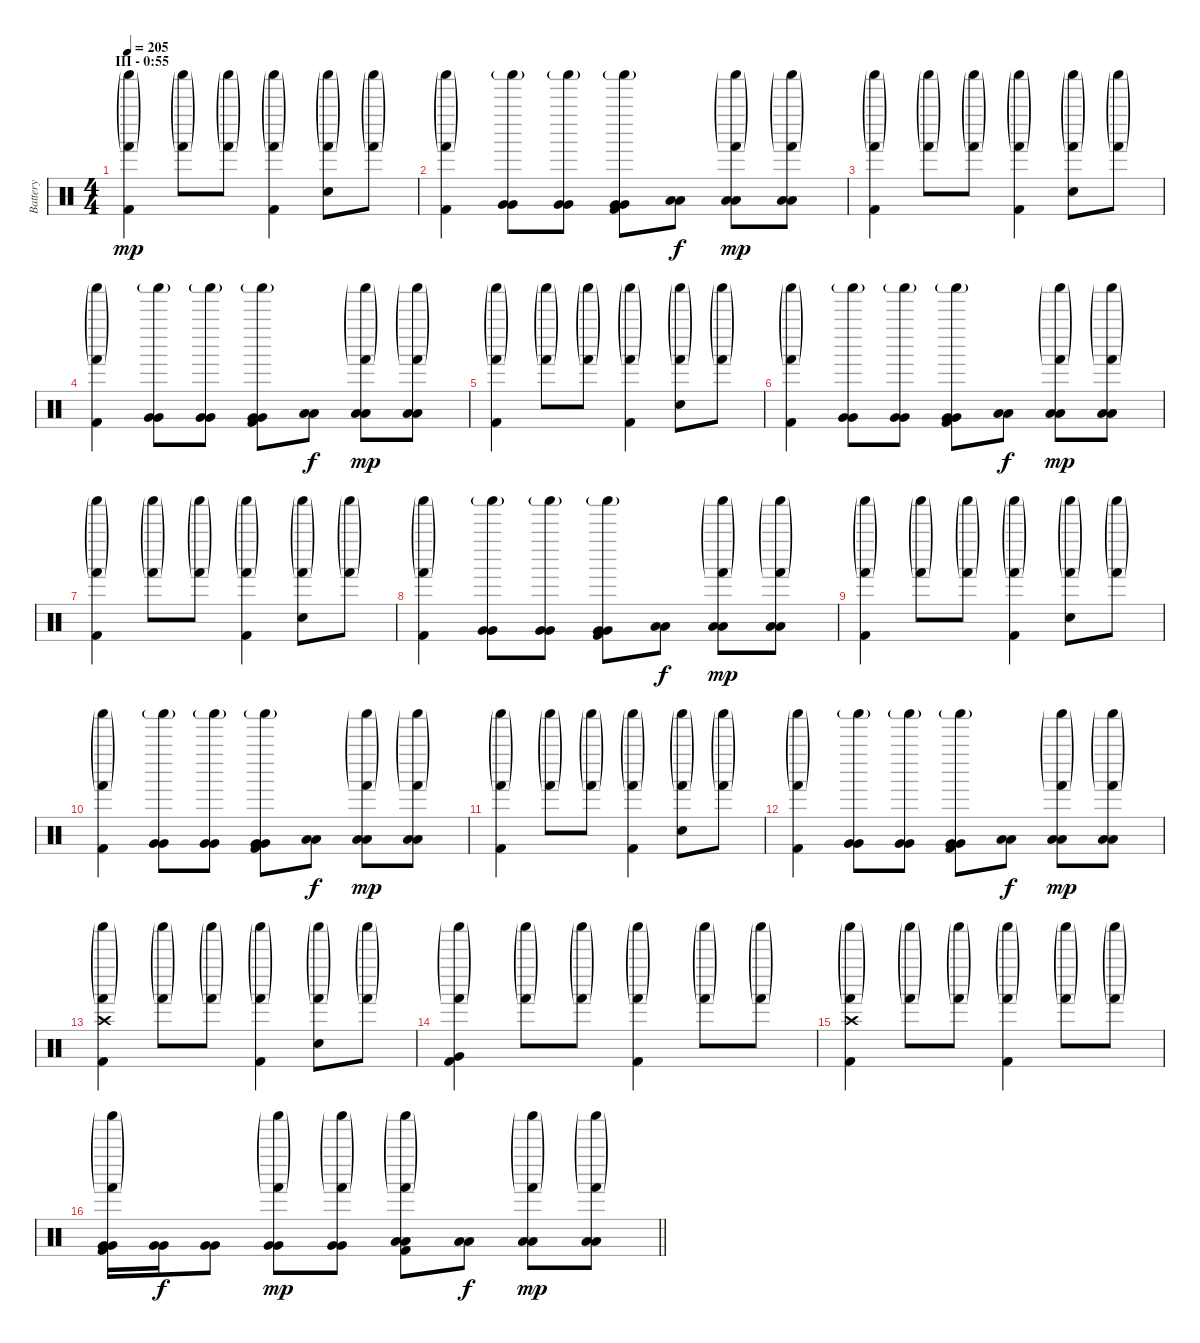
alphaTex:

\track ("Battery" "Battery") {instrument percussion}
\staff {score}
\articulation defaults
\ts (4 4)
\section ("" "III - 0:55")
\tempo 205
\clef neutral
\ks c
("Shaker (hit)"{g} "Hand (hit)"{g} "Kick (hit) 2").4{dy mp} ("Shaker (hit)"{g} "Hand (hit)"{g}).8 ("Shaker (hit)"{g} "Hand (hit)"{g}).8 ("Shaker (hit)"{g} "Hand (hit)"{g} "Kick (hit) 2").4 ("Shaker (hit)"{g} "Hand (hit)"{g} "Electric Snare (hit)").8 ("Shaker (hit)"{g} "Hand (hit)"{g}).8 |
("Shaker (hit)"{g} "Hand (hit)"{g} "Kick (hit) 2").4 ("Shaker (hit)"{g} "Very Low Tom (hit)" "Very Low Tom (hit)").8 ("Shaker (hit)"{g} "Very Low Tom (hit)" "Very Low Tom (hit)").8 ("Shaker (hit)"{g} "Very Low Tom (hit)" "Very Low Tom (hit)" "Kick (hit) 2").8 ("Low Floor Tom (hit)" "Low Floor Tom (hit)").8{dy f} ("Shaker (hit)"{g} "Hand (hit)"{g} "Low Floor Tom (hit)" "Low Floor Tom (hit)").8{dy mp} ("Shaker (hit)"{g} "Hand (hit)"{g} "Low Floor Tom (hit)" "Low Floor Tom (hit)").8 |
("Shaker (hit)"{g} "Hand (hit)"{g} "Kick (hit) 2").4 ("Shaker (hit)"{g} "Hand (hit)"{g}).8 ("Shaker (hit)"{g} "Hand (hit)"{g}).8 ("Shaker (hit)"{g} "Hand (hit)"{g} "Kick (hit) 2").4 ("Shaker (hit)"{g} "Hand (hit)"{g} "Electric Snare (hit)").8 ("Shaker (hit)"{g} "Hand (hit)"{g}).8 |
("Shaker (hit)"{g} "Hand (hit)"{g} "Kick (hit) 2").4 ("Shaker (hit)"{g} "Very Low Tom (hit)" "Very Low Tom (hit)").8 ("Shaker (hit)"{g} "Very Low Tom (hit)" "Very Low Tom (hit)").8 ("Shaker (hit)"{g} "Very Low Tom (hit)" "Very Low Tom (hit)" "Kick (hit) 2").8 ("Low Floor Tom (hit)" "Low Floor Tom (hit)").8{dy f} ("Shaker (hit)"{g} "Hand (hit)"{g} "Low Floor Tom (hit)" "Low Floor Tom (hit)").8{dy mp} ("Shaker (hit)"{g} "Hand (hit)"{g} "Low Floor Tom (hit)" "Low Floor Tom (hit)").8 |
("Shaker (hit)"{g} "Hand (hit)"{g} "Kick (hit) 2").4 ("Shaker (hit)"{g} "Hand (hit)"{g}).8 ("Shaker (hit)"{g} "Hand (hit)"{g}).8 ("Shaker (hit)"{g} "Hand (hit)"{g} "Kick (hit) 2").4 ("Shaker (hit)"{g} "Hand (hit)"{g} "Electric Snare (hit)").8 ("Shaker (hit)"{g} "Hand (hit)"{g}).8 |
("Shaker (hit)"{g} "Hand (hit)"{g} "Kick (hit) 2").4 ("Shaker (hit)"{g} "Very Low Tom (hit)" "Very Low Tom (hit)").8 ("Shaker (hit)"{g} "Very Low Tom (hit)" "Very Low Tom (hit)").8 ("Shaker (hit)"{g} "Very Low Tom (hit)" "Very Low Tom (hit)" "Kick (hit) 2").8 ("Low Floor Tom (hit)" "Low Floor Tom (hit)").8{dy f} ("Shaker (hit)"{g} "Hand (hit)"{g} "Low Floor Tom (hit)" "Low Floor Tom (hit)").8{dy mp} ("Shaker (hit)"{g} "Hand (hit)"{g} "Low Floor Tom (hit)" "Low Floor Tom (hit)").8 |
("Shaker (hit)"{g} "Hand (hit)"{g} "Kick (hit) 2").4 ("Shaker (hit)"{g} "Hand (hit)"{g}).8 ("Shaker (hit)"{g} "Hand (hit)"{g}).8 ("Shaker (hit)"{g} "Hand (hit)"{g} "Kick (hit) 2").4 ("Shaker (hit)"{g} "Hand (hit)"{g} "Electric Snare (hit)").8 ("Shaker (hit)"{g} "Hand (hit)"{g}).8 |
("Shaker (hit)"{g} "Hand (hit)"{g} "Kick (hit) 2").4 ("Shaker (hit)"{g} "Very Low Tom (hit)" "Very Low Tom (hit)").8 ("Shaker (hit)"{g} "Very Low Tom (hit)" "Very Low Tom (hit)").8 ("Shaker (hit)"{g} "Very Low Tom (hit)" "Very Low Tom (hit)" "Kick (hit) 2").8 ("Low Floor Tom (hit)" "Low Floor Tom (hit)").8{dy f} ("Shaker (hit)"{g} "Hand (hit)"{g} "Low Floor Tom (hit)" "Low Floor Tom (hit)").8{dy mp} ("Shaker (hit)"{g} "Hand (hit)"{g} "Low Floor Tom (hit)" "Low Floor Tom (hit)").8 |
("Shaker (hit)"{g} "Hand (hit)"{g} "Kick (hit) 2").4 ("Shaker (hit)"{g} "Hand (hit)"{g}).8 ("Shaker (hit)"{g} "Hand (hit)"{g}).8 ("Shaker (hit)"{g} "Hand (hit)"{g} "Kick (hit) 2").4 ("Shaker (hit)"{g} "Hand (hit)"{g} "Electric Snare (hit)").8 ("Shaker (hit)"{g} "Hand (hit)"{g}).8 |
("Shaker (hit)"{g} "Hand (hit)"{g} "Kick (hit) 2").4 ("Shaker (hit)"{g} "Very Low Tom (hit)" "Very Low Tom (hit)").8 ("Shaker (hit)"{g} "Very Low Tom (hit)" "Very Low Tom (hit)").8 ("Shaker (hit)"{g} "Very Low Tom (hit)" "Very Low Tom (hit)" "Kick (hit) 2").8 ("Low Floor Tom (hit)" "Low Floor Tom (hit)").8{dy f} ("Shaker (hit)"{g} "Hand (hit)"{g} "Low Floor Tom (hit)" "Low Floor Tom (hit)").8{dy mp} ("Shaker (hit)"{g} "Hand (hit)"{g} "Low Floor Tom (hit)" "Low Floor Tom (hit)").8 |
("Shaker (hit)"{g} "Hand (hit)"{g} "Kick (hit) 2").4 ("Shaker (hit)"{g} "Hand (hit)"{g}).8 ("Shaker (hit)"{g} "Hand (hit)"{g}).8 ("Shaker (hit)"{g} "Hand (hit)"{g} "Kick (hit) 2").4 ("Shaker (hit)"{g} "Hand (hit)"{g} "Electric Snare (hit)").8 ("Shaker (hit)"{g} "Hand (hit)"{g}).8 |
("Shaker (hit)"{g} "Hand (hit)"{g} "Kick (hit) 2").4 ("Shaker (hit)"{g} "Very Low Tom (hit)" "Very Low Tom (hit)").8 ("Shaker (hit)"{g} "Very Low Tom (hit)" "Very Low Tom (hit)").8 ("Shaker (hit)"{g} "Very Low Tom (hit)" "Very Low Tom (hit)" "Kick (hit) 2").8 ("Low Floor Tom (hit)" "Low Floor Tom (hit)").8{dy f} ("Shaker (hit)"{g} "Hand (hit)"{g} "Low Floor Tom (hit)" "Low Floor Tom (hit)").8{dy mp} ("Shaker (hit)"{g} "Hand (hit)"{g} "Low Floor Tom (hit)" "Low Floor Tom (hit)").8 |
("Shaker (hit)"{g} "Crash high (hit)" "Hand (hit)"{g} "Kick (hit) 2").4 ("Shaker (hit)"{g} "Hand (hit)"{g}).8 ("Shaker (hit)"{g} "Hand (hit)"{g}).8 ("Shaker (hit)"{g} "Hand (hit)"{g} "Kick (hit) 2").4 ("Shaker (hit)"{g} "Hand (hit)"{g} "Electric Snare (hit)").8 ("Shaker (hit)"{g} "Hand (hit)"{g}).8 |
("Shaker (hit)"{g} "Hand (hit)"{g} "Very Low Tom (hit)" "Kick (hit) 2").4 ("Shaker (hit)"{g} "Hand (hit)"{g}).8 ("Shaker (hit)"{g} "Hand (hit)"{g}).8 ("Shaker (hit)"{g} "Hand (hit)"{g} "Kick (hit) 2").4 ("Shaker (hit)"{g} "Hand (hit)"{g}).8 ("Shaker (hit)"{g} "Hand (hit)"{g}).8 |
("Shaker (hit)"{g} "Crash high (hit)" "Hand (hit)"{g} "Kick (hit) 2").4 ("Shaker (hit)"{g} "Hand (hit)"{g}).8 ("Shaker (hit)"{g} "Hand (hit)"{g}).8 ("Shaker (hit)"{g} "Hand (hit)"{g} "Kick (hit) 2").4 ("Shaker (hit)"{g} "Hand (hit)"{g}).8 ("Shaker (hit)"{g} "Hand (hit)"{g}).8 |
\barLineRight lightlight
("Shaker (hit)"{g} "Hand (hit)"{g} "Very Low Tom (hit)" "Very Low Tom (hit)" "Kick (hit) 2").16 ("Very Low Tom (hit)" "Very Low Tom (hit)").16{dy f} ("Very Low Tom (hit)" "Very Low Tom (hit)").8 ("Shaker (hit)"{g} "Hand (hit)"{g} "Very Low Tom (hit)" "Very Low Tom (hit)").8{dy mp} ("Shaker (hit)"{g} "Hand (hit)"{g} "Very Low Tom (hit)" "Very Low Tom (hit)").8 ("Shaker (hit)"{g} "Hand (hit)"{g} "Low Floor Tom (hit)" "Low Floor Tom (hit)" "Kick (hit) 2").8 ("Low Floor Tom (hit)" "Low Floor Tom (hit)").8{dy f} ("Shaker (hit)"{g} "Hand (hit)"{g} "Low Floor Tom (hit)" "Low Floor Tom (hit)").8{dy mp} ("Shaker (hit)"{g} "Hand (hit)"{g} "Low Floor Tom (hit)" "Low Floor Tom (hit)").8
